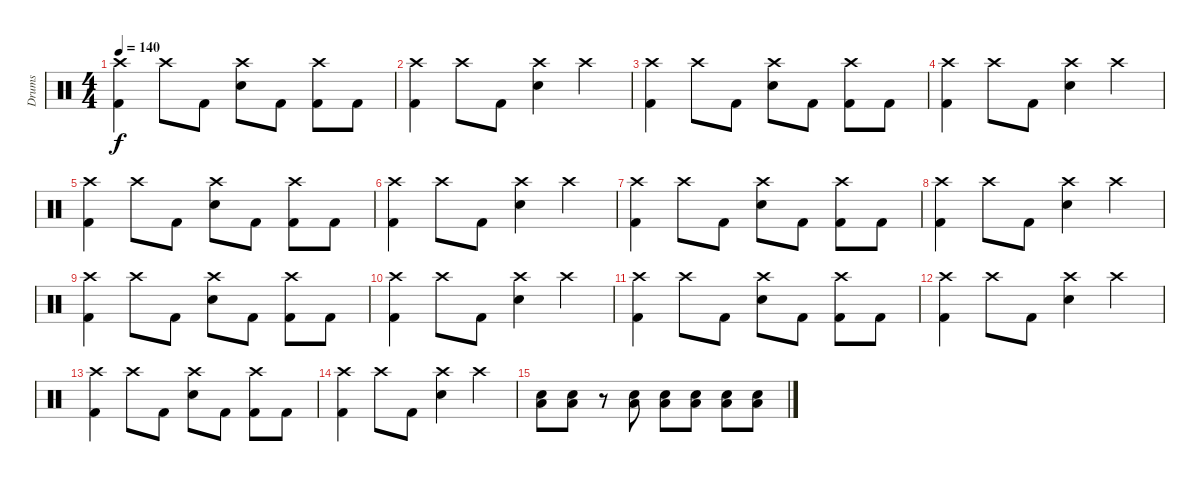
\track ("Drums" "Drums") {instrument percussion}
\staff {score}
\articulation defaults
\ts (4 4)
\tempo 140
\clef neutral
\ks c
("Kick (hit) 2" "Crash high (hit)").4{dy f} "Crash high (hit)".8 "Kick (hit) 2".8 ("Snare (hit) 2" "Crash high (hit)").8 "Kick (hit) 2".8 ("Kick (hit) 2" "Crash high (hit)").8 "Kick (hit) 2".8 |
("Kick (hit) 2" "Crash high (hit)").4 "Crash high (hit)".8 "Kick (hit) 2".8 ("Snare (hit) 2" "Crash high (hit)").4 "Crash high (hit)".4 |
("Kick (hit) 2" "Crash high (hit)").4 "Crash high (hit)".8 "Kick (hit) 2".8 ("Snare (hit) 2" "Crash high (hit)").8 "Kick (hit) 2".8 ("Kick (hit) 2" "Crash high (hit)").8 "Kick (hit) 2".8 |
("Kick (hit) 2" "Crash high (hit)").4 "Crash high (hit)".8 "Kick (hit) 2".8 ("Snare (hit) 2" "Crash high (hit)").4 "Crash high (hit)".4 |
("Kick (hit) 2" "Crash high (hit)").4 "Crash high (hit)".8 "Kick (hit) 2".8 ("Snare (hit) 2" "Crash high (hit)").8 "Kick (hit) 2".8 ("Kick (hit) 2" "Crash high (hit)").8 "Kick (hit) 2".8 |
("Kick (hit) 2" "Crash high (hit)").4 "Crash high (hit)".8 "Kick (hit) 2".8 ("Snare (hit) 2" "Crash high (hit)").4 "Crash high (hit)".4 |
("Kick (hit) 2" "Crash high (hit)").4 "Crash high (hit)".8 "Kick (hit) 2".8 ("Snare (hit) 2" "Crash high (hit)").8 "Kick (hit) 2".8 ("Kick (hit) 2" "Crash high (hit)").8 "Kick (hit) 2".8 |
("Kick (hit) 2" "Crash high (hit)").4 "Crash high (hit)".8 "Kick (hit) 2".8 ("Snare (hit) 2" "Crash high (hit)").4 "Crash high (hit)".4 |
("Kick (hit) 2" "Crash high (hit)").4 "Crash high (hit)".8 "Kick (hit) 2".8 ("Snare (hit) 2" "Crash high (hit)").8 "Kick (hit) 2".8 ("Kick (hit) 2" "Crash high (hit)").8 "Kick (hit) 2".8 |
("Kick (hit) 2" "Crash high (hit)").4 "Crash high (hit)".8 "Kick (hit) 2".8 ("Snare (hit) 2" "Crash high (hit)").4 "Crash high (hit)".4 |
("Kick (hit) 2" "Crash high (hit)").4 "Crash high (hit)".8 "Kick (hit) 2".8 ("Snare (hit) 2" "Crash high (hit)").8 "Kick (hit) 2".8 ("Kick (hit) 2" "Crash high (hit)").8 "Kick (hit) 2".8 |
("Kick (hit) 2" "Crash high (hit)").4 "Crash high (hit)".8 "Kick (hit) 2".8 ("Snare (hit) 2" "Crash high (hit)").4 "Crash high (hit)".4 |
("Kick (hit) 2" "Crash high (hit)").4 "Crash high (hit)".8 "Kick (hit) 2".8 ("Snare (hit) 2" "Crash high (hit)").8 "Kick (hit) 2".8 ("Kick (hit) 2" "Crash high (hit)").8 "Kick (hit) 2".8 |
("Kick (hit) 2" "Crash high (hit)").4 "Crash high (hit)".8 "Kick (hit) 2".8 ("Snare (hit) 2" "Crash high (hit)").4 "Crash high (hit)".4 |
("Snare (hit) 2" "Low Floor Tom (hit)").8 ("Snare (hit) 2" "Low Floor Tom (hit)").8 r.8 ("Snare (hit) 2" "Low Floor Tom (hit)").8 ("Snare (hit) 2" "Low Floor Tom (hit)").8 ("Snare (hit) 2" "Low Floor Tom (hit)").8 ("Snare (hit) 2" "Low Floor Tom (hit)").8 ("Snare (hit) 2" "Low Floor Tom (hit)").8
